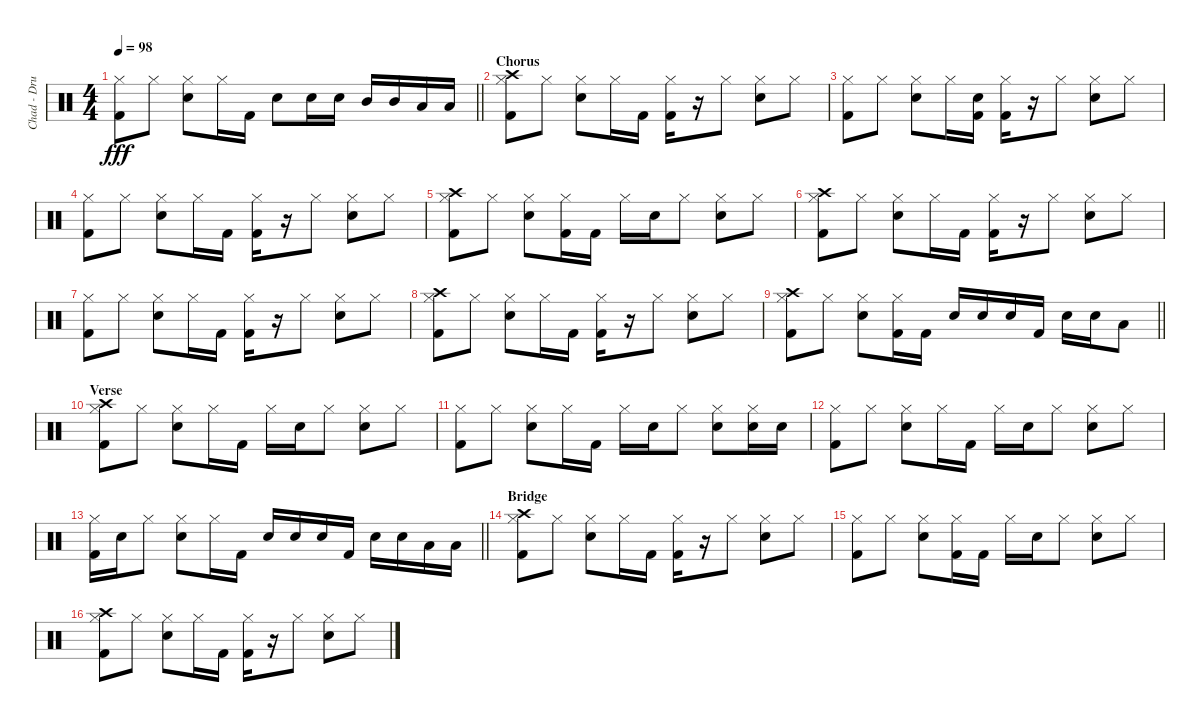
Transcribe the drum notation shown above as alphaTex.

\track ("Chad - Drums" "Chad - Dru") {instrument percussion}
\staff {score}
\articulation defaults
\ts (4 4)
\tempo 98
\clef neutral
\barLineRight lightlight
\ks c
("Hi-Hat (closed)" "Kick (hit) 2").8{dy fff} "Hi-Hat (closed)".8 ("Snare (hit) 2" "Hi-Hat (closed)").8 "Hi-Hat (closed)".16 "Kick (hit) 2".16 "Snare (hit) 2".8 "Snare (hit) 2".16 "Snare (hit) 2".16 "Mid Tom (hit)".16 "Mid Tom (hit)".16 "Low Tom (hit)".16 "Low Tom (hit)".16 |
\section ("" "Chorus")
("Hi-Hat (closed)" "Crash high (hit)" "Kick (hit) 2").8 "Hi-Hat (closed)".8 ("Snare (hit) 2" "Hi-Hat (closed)").8 "Hi-Hat (closed)".16 "Kick (hit) 2".16 ("Hi-Hat (closed)" "Kick (hit) 2").16 r.16 "Hi-Hat (closed)".8 ("Snare (hit) 2" "Hi-Hat (closed)").8 "Hi-Hat (closed)".8 |
("Hi-Hat (closed)" "Kick (hit) 2").8 "Hi-Hat (closed)".8 ("Snare (hit) 2" "Hi-Hat (closed)").8 "Hi-Hat (closed)".16 ("Snare (hit) 2" "Kick (hit) 2").16 ("Hi-Hat (closed)" "Kick (hit) 2").16 r.16 "Hi-Hat (closed)".8 ("Snare (hit) 2" "Hi-Hat (closed)").8 "Hi-Hat (closed)".8 |
("Hi-Hat (closed)" "Kick (hit) 2").8 "Hi-Hat (closed)".8 ("Snare (hit) 2" "Hi-Hat (closed)").8 "Hi-Hat (closed)".16 "Kick (hit) 2".16 ("Hi-Hat (closed)" "Kick (hit) 2").16 r.16 "Hi-Hat (closed)".8 ("Snare (hit) 2" "Hi-Hat (closed)").8 "Hi-Hat (closed)".8 |
("Hi-Hat (closed)" "Crash high (hit)" "Kick (hit) 2").8 "Hi-Hat (closed)".8 ("Snare (hit) 2" "Hi-Hat (closed)").8 ("Hi-Hat (closed)" "Kick (hit) 2").16 "Kick (hit) 2".16 "Hi-Hat (closed)".16 "Snare (hit) 2".16 "Hi-Hat (closed)".8 ("Snare (hit) 2" "Hi-Hat (closed)").8 "Hi-Hat (closed)".8 |
("Hi-Hat (closed)" "Crash high (hit)" "Kick (hit) 2").8 "Hi-Hat (closed)".8 ("Snare (hit) 2" "Hi-Hat (closed)").8 "Hi-Hat (closed)".16 "Kick (hit) 2".16 ("Hi-Hat (closed)" "Kick (hit) 2").16 r.16 "Hi-Hat (closed)".8 ("Snare (hit) 2" "Hi-Hat (closed)").8 "Hi-Hat (closed)".8 |
("Hi-Hat (closed)" "Kick (hit) 2").8 "Hi-Hat (closed)".8 ("Snare (hit) 2" "Hi-Hat (closed)").8 "Hi-Hat (closed)".16 "Kick (hit) 2".16 ("Hi-Hat (closed)" "Kick (hit) 2").16 r.16 "Hi-Hat (closed)".8 ("Snare (hit) 2" "Hi-Hat (closed)").8 "Hi-Hat (closed)".8 |
("Hi-Hat (closed)" "Crash high (hit)" "Kick (hit) 2").8 "Hi-Hat (closed)".8 ("Snare (hit) 2" "Hi-Hat (closed)").8 "Hi-Hat (closed)".16 "Kick (hit) 2".16 ("Hi-Hat (closed)" "Kick (hit) 2").16 r.16 "Hi-Hat (closed)".8 ("Snare (hit) 2" "Hi-Hat (closed)").8 "Hi-Hat (closed)".8 |
\barLineRight lightlight
("Hi-Hat (closed)" "Crash high (hit)" "Kick (hit) 2").8 "Hi-Hat (closed)".8 ("Snare (hit) 2" "Hi-Hat (closed)").8 ("Hi-Hat (closed)" "Kick (hit) 2").16 "Kick (hit) 2".16 "Snare (hit) 2".16 "Snare (hit) 2".16 "Snare (hit) 2".16 "Kick (hit) 2".16 "Snare (hit) 2".16 "Snare (hit) 2".16 "Low Tom (hit)".8 |
\section ("" "Verse")
("Hi-Hat (closed)" "Crash high (hit)" "Kick (hit) 2").8 "Hi-Hat (closed)".8 ("Snare (hit) 2" "Hi-Hat (closed)").8 "Hi-Hat (closed)".16 "Kick (hit) 2".16 "Hi-Hat (closed)".16 "Snare (hit) 2".16 "Hi-Hat (closed)".8 ("Snare (hit) 2" "Hi-Hat (closed)").8 "Hi-Hat (closed)".8 |
("Hi-Hat (closed)" "Kick (hit) 2").8 "Hi-Hat (closed)".8 ("Snare (hit) 2" "Hi-Hat (closed)").8 "Hi-Hat (closed)".16 "Kick (hit) 2".16 "Hi-Hat (closed)".16 "Snare (hit) 2".16 "Hi-Hat (closed)".8 ("Snare (hit) 2" "Hi-Hat (closed)").8 ("Snare (hit) 2" "Hi-Hat (closed)").16 "Snare (hit) 2".16 |
("Hi-Hat (closed)" "Kick (hit) 2").8 "Hi-Hat (closed)".8 ("Snare (hit) 2" "Hi-Hat (closed)").8 "Hi-Hat (closed)".16 "Kick (hit) 2".16 "Hi-Hat (closed)".16 "Snare (hit) 2".16 "Hi-Hat (closed)".8 ("Snare (hit) 2" "Hi-Hat (closed)").8 "Hi-Hat (closed)".8 |
\barLineRight lightlight
("Hi-Hat (closed)" "Kick (hit) 2").16 "Snare (hit) 2".16 "Hi-Hat (closed)".8 ("Snare (hit) 2" "Hi-Hat (closed)").8 "Hi-Hat (closed)".16 "Kick (hit) 2".16 "Snare (hit) 2".16 "Snare (hit) 2".16 "Snare (hit) 2".16 "Kick (hit) 2".16 "Snare (hit) 2".16 "Snare (hit) 2".16 "Low Tom (hit)".16 "Low Tom (hit)".16 |
\section ("" "Bridge")
("Hi-Hat (closed)" "Crash high (hit)" "Kick (hit) 2").8 "Hi-Hat (closed)".8 ("Snare (hit) 2" "Hi-Hat (closed)").8 "Hi-Hat (closed)".16 "Kick (hit) 2".16 ("Hi-Hat (closed)" "Kick (hit) 2").16 r.16 "Hi-Hat (closed)".8 ("Snare (hit) 2" "Hi-Hat (closed)").8 "Hi-Hat (closed)".8 |
("Hi-Hat (closed)" "Kick (hit) 2").8 "Hi-Hat (closed)".8 ("Snare (hit) 2" "Hi-Hat (closed)").8 ("Hi-Hat (closed)" "Kick (hit) 2").16 "Kick (hit) 2".16 "Hi-Hat (closed)".16 "Snare (hit) 2".16 "Hi-Hat (closed)".8 ("Snare (hit) 2" "Hi-Hat (closed)").8 "Hi-Hat (closed)".8 |
("Hi-Hat (closed)" "Crash high (hit)" "Kick (hit) 2").8 "Hi-Hat (closed)".8 ("Snare (hit) 2" "Hi-Hat (closed)").8 "Hi-Hat (closed)".16 "Kick (hit) 2".16 ("Hi-Hat (closed)" "Kick (hit) 2").16 r.16 "Hi-Hat (closed)".8 ("Snare (hit) 2" "Hi-Hat (closed)").8 "Hi-Hat (closed)".8
